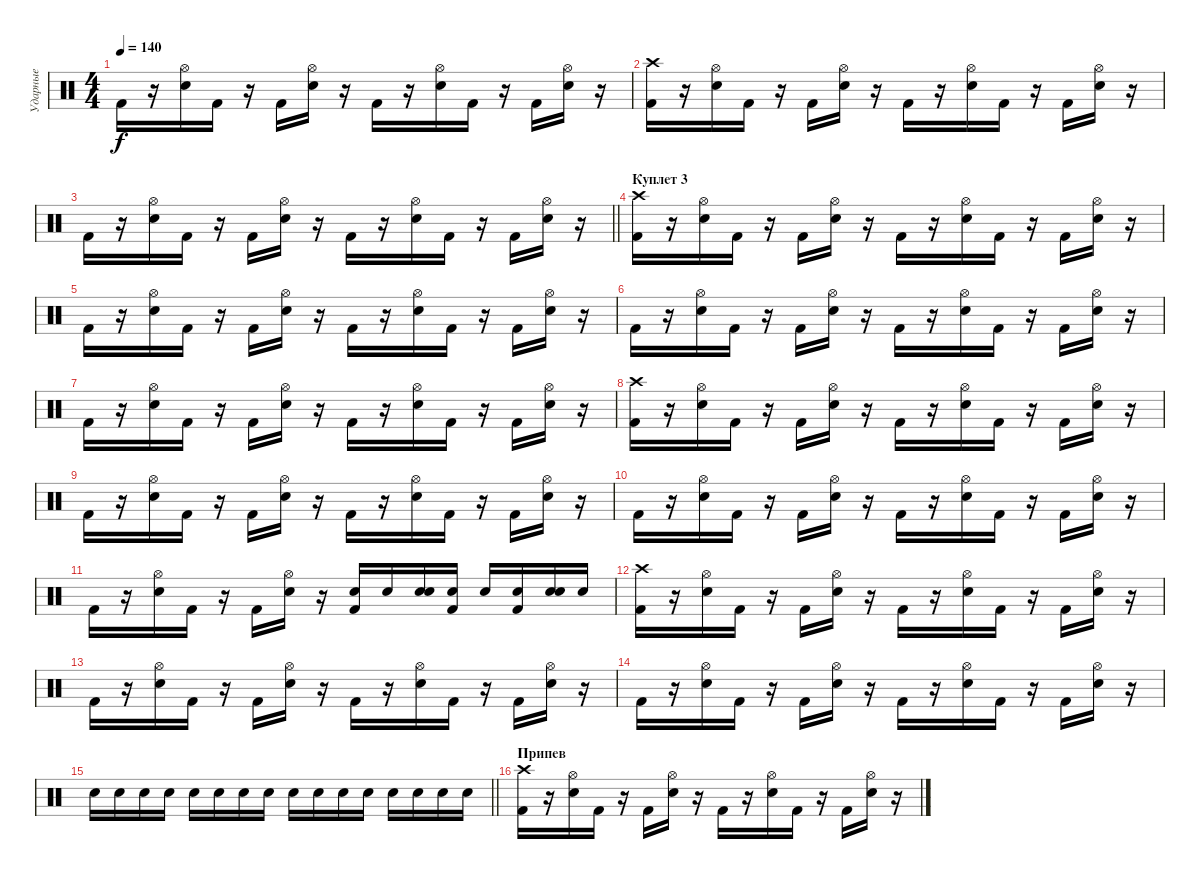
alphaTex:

\track ("Ударные" "Ударные") {instrument percussion}
\staff {score}
\articulation defaults
\ts (4 4)
\tempo 140
\clef neutral
\ks c "Kick (hit) 2".16{dy f}
r.16 ("Electric Snare (hit)" "Hi-Hat (open)").16 "Kick (hit) 2".16 r.16 "Kick (hit) 2".16 ("Electric Snare (hit)" "Hi-Hat (open)").16 r.16 "Kick (hit) 2".16 r.16 ("Electric Snare (hit)" "Hi-Hat (open)").16 "Kick (hit) 2".16 r.16 "Kick (hit) 2".16 ("Electric Snare (hit)" "Hi-Hat (open)").16 r.16 |
("Kick (hit) 2" "Crash high (hit)").16 r.16 ("Electric Snare (hit)" "Hi-Hat (open)").16 "Kick (hit) 2".16 r.16 "Kick (hit) 2".16 ("Electric Snare (hit)" "Hi-Hat (open)").16 r.16 "Kick (hit) 2".16 r.16 ("Electric Snare (hit)" "Hi-Hat (open)").16 "Kick (hit) 2".16 r.16 "Kick (hit) 2".16 ("Electric Snare (hit)" "Hi-Hat (open)").16 r.16 |
\barLineRight lightlight "Kick (hit) 2".16
r.16 ("Electric Snare (hit)" "Hi-Hat (open)").16 "Kick (hit) 2".16 r.16 "Kick (hit) 2".16 ("Electric Snare (hit)" "Hi-Hat (open)").16 r.16 "Kick (hit) 2".16 r.16 ("Electric Snare (hit)" "Hi-Hat (open)").16 "Kick (hit) 2".16 r.16 "Kick (hit) 2".16 ("Electric Snare (hit)" "Hi-Hat (open)").16 r.16 |
\section ("" "Куплет 3")
("Kick (hit) 2" "Crash high (hit)").16 r.16 ("Electric Snare (hit)" "Hi-Hat (open)").16 "Kick (hit) 2".16 r.16 "Kick (hit) 2".16 ("Electric Snare (hit)" "Hi-Hat (open)").16 r.16 "Kick (hit) 2".16 r.16 ("Electric Snare (hit)" "Hi-Hat (open)").16 "Kick (hit) 2".16 r.16 "Kick (hit) 2".16 ("Electric Snare (hit)" "Hi-Hat (open)").16 r.16 |
"Kick (hit) 2".16 r.16 ("Electric Snare (hit)" "Hi-Hat (open)").16 "Kick (hit) 2".16 r.16 "Kick (hit) 2".16 ("Electric Snare (hit)" "Hi-Hat (open)").16 r.16 "Kick (hit) 2".16 r.16 ("Electric Snare (hit)" "Hi-Hat (open)").16 "Kick (hit) 2".16 r.16 "Kick (hit) 2".16 ("Electric Snare (hit)" "Hi-Hat (open)").16 r.16 |
"Kick (hit) 2".16 r.16 ("Electric Snare (hit)" "Hi-Hat (open)").16 "Kick (hit) 2".16 r.16 "Kick (hit) 2".16 ("Electric Snare (hit)" "Hi-Hat (open)").16 r.16 "Kick (hit) 2".16 r.16 ("Electric Snare (hit)" "Hi-Hat (open)").16 "Kick (hit) 2".16 r.16 "Kick (hit) 2".16 ("Electric Snare (hit)" "Hi-Hat (open)").16 r.16 |
"Kick (hit) 2".16 r.16 ("Electric Snare (hit)" "Hi-Hat (open)").16 "Kick (hit) 2".16 r.16 "Kick (hit) 2".16 ("Electric Snare (hit)" "Hi-Hat (open)").16 r.16 "Kick (hit) 2".16 r.16 ("Electric Snare (hit)" "Hi-Hat (open)").16 "Kick (hit) 2".16 r.16 "Kick (hit) 2".16 ("Electric Snare (hit)" "Hi-Hat (open)").16 r.16 |
("Kick (hit) 2" "Crash high (hit)").16 r.16 ("Electric Snare (hit)" "Hi-Hat (open)").16 "Kick (hit) 2".16 r.16 "Kick (hit) 2".16 ("Electric Snare (hit)" "Hi-Hat (open)").16 r.16 "Kick (hit) 2".16 r.16 ("Electric Snare (hit)" "Hi-Hat (open)").16 "Kick (hit) 2".16 r.16 "Kick (hit) 2".16 ("Electric Snare (hit)" "Hi-Hat (open)").16 r.16 |
"Kick (hit) 2".16 r.16 ("Electric Snare (hit)" "Hi-Hat (open)").16 "Kick (hit) 2".16 r.16 "Kick (hit) 2".16 ("Electric Snare (hit)" "Hi-Hat (open)").16 r.16 "Kick (hit) 2".16 r.16 ("Electric Snare (hit)" "Hi-Hat (open)").16 "Kick (hit) 2".16 r.16 "Kick (hit) 2".16 ("Electric Snare (hit)" "Hi-Hat (open)").16 r.16 |
"Kick (hit) 2".16 r.16 ("Electric Snare (hit)" "Hi-Hat (open)").16 "Kick (hit) 2".16 r.16 "Kick (hit) 2".16 ("Electric Snare (hit)" "Hi-Hat (open)").16 r.16 "Kick (hit) 2".16 r.16 ("Electric Snare (hit)" "Hi-Hat (open)").16 "Kick (hit) 2".16 r.16 "Kick (hit) 2".16 ("Electric Snare (hit)" "Hi-Hat (open)").16 r.16 |
"Kick (hit) 2".16 r.16 ("Electric Snare (hit)" "Hi-Hat (open)").16 "Kick (hit) 2".16 r.16 "Kick (hit) 2".16 ("Electric Snare (hit)" "Hi-Hat (open)").16 r.16 ("Kick (hit) 2" "Electric Snare (hit)").16 "Electric Snare (hit)".16 ("Electric Snare (hit)" "Electric Snare (hit)").16 ("Kick (hit) 2" "Electric Snare (hit)").16 "Electric Snare (hit)".16 ("Kick (hit) 2" "Electric Snare (hit)").16 ("Electric Snare (hit)" "Electric Snare (hit)").16 "Electric Snare (hit)".16 |
("Kick (hit) 2" "Crash high (hit)").16 r.16 ("Electric Snare (hit)" "Hi-Hat (open)").16 "Kick (hit) 2".16 r.16 "Kick (hit) 2".16 ("Electric Snare (hit)" "Hi-Hat (open)").16 r.16 "Kick (hit) 2".16 r.16 ("Electric Snare (hit)" "Hi-Hat (open)").16 "Kick (hit) 2".16 r.16 "Kick (hit) 2".16 ("Electric Snare (hit)" "Hi-Hat (open)").16 r.16 |
"Kick (hit) 2".16 r.16 ("Electric Snare (hit)" "Hi-Hat (open)").16 "Kick (hit) 2".16 r.16 "Kick (hit) 2".16 ("Electric Snare (hit)" "Hi-Hat (open)").16 r.16 "Kick (hit) 2".16 r.16 ("Electric Snare (hit)" "Hi-Hat (open)").16 "Kick (hit) 2".16 r.16 "Kick (hit) 2".16 ("Electric Snare (hit)" "Hi-Hat (open)").16 r.16 |
"Kick (hit) 2".16 r.16 ("Electric Snare (hit)" "Hi-Hat (open)").16 "Kick (hit) 2".16 r.16 "Kick (hit) 2".16 ("Electric Snare (hit)" "Hi-Hat (open)").16 r.16 "Kick (hit) 2".16 r.16 ("Electric Snare (hit)" "Hi-Hat (open)").16 "Kick (hit) 2".16 r.16 "Kick (hit) 2".16 ("Electric Snare (hit)" "Hi-Hat (open)").16 r.16 |
\barLineRight lightlight "Electric Snare (hit)".16 "Electric Snare (hit)".16 "Electric Snare (hit)".16 "Electric Snare (hit)".16 "Electric Snare (hit)".16 "Electric Snare (hit)".16 "Electric Snare (hit)".16 "Electric Snare (hit)".16 "Electric Snare (hit)".16 "Electric Snare (hit)".16 "Electric Snare (hit)".16 "Electric Snare (hit)".16 "Electric Snare (hit)".16 "Electric Snare (hit)".16 "Electric Snare (hit)".16 "Electric Snare (hit)".16
|
\section ("" "Припев")
("Kick (hit) 2" "Crash high (hit)").16 r.16 ("Electric Snare (hit)" "Hi-Hat (open)").16 "Kick (hit) 2".16 r.16 "Kick (hit) 2".16 ("Electric Snare (hit)" "Hi-Hat (open)").16 r.16 "Kick (hit) 2".16 r.16 ("Electric Snare (hit)" "Hi-Hat (open)").16 "Kick (hit) 2".16 r.16 "Kick (hit) 2".16 ("Electric Snare (hit)" "Hi-Hat (open)").16 r.16
